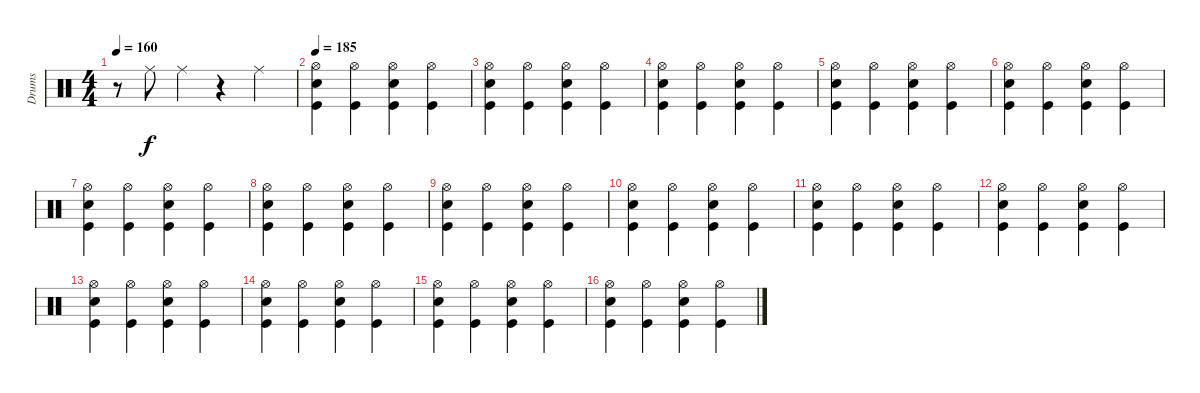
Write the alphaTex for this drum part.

\track ("Drums" "Drums") {instrument percussion}
\staff {score}
\articulation defaults
\ts (4 4)
\tempo 160
\clef neutral
\ks c
r.8{dy f} "Ride (middle)".8 "Ride (middle)".4 r.4 "Ride (middle)".4 |
\tempo 185
("Hi-Hat (open)" "Kick (hit)" "Snare (hit) 2").4 ("Hi-Hat (open)" "Kick (hit)").4 ("Hi-Hat (open)" "Kick (hit)" "Snare (hit) 2").4 ("Hi-Hat (open)" "Kick (hit)").4 |
("Hi-Hat (open)" "Kick (hit)" "Snare (hit) 2").4 ("Hi-Hat (open)" "Kick (hit)").4 ("Hi-Hat (open)" "Kick (hit)" "Snare (hit) 2").4 ("Hi-Hat (open)" "Kick (hit)").4 |
("Hi-Hat (open)" "Kick (hit)" "Snare (hit) 2").4 ("Hi-Hat (open)" "Kick (hit)").4 ("Hi-Hat (open)" "Kick (hit)" "Snare (hit) 2").4 ("Hi-Hat (open)" "Kick (hit)").4 |
("Hi-Hat (open)" "Kick (hit)" "Snare (hit) 2").4 ("Hi-Hat (open)" "Kick (hit)").4 ("Hi-Hat (open)" "Kick (hit)" "Snare (hit) 2").4 ("Hi-Hat (open)" "Kick (hit)").4 |
("Hi-Hat (open)" "Kick (hit)" "Snare (hit) 2").4 ("Hi-Hat (open)" "Kick (hit)").4 ("Hi-Hat (open)" "Kick (hit)" "Snare (hit) 2").4 ("Hi-Hat (open)" "Kick (hit)").4 |
("Hi-Hat (open)" "Kick (hit)" "Snare (hit) 2").4 ("Hi-Hat (open)" "Kick (hit)").4 ("Hi-Hat (open)" "Kick (hit)" "Snare (hit) 2").4 ("Hi-Hat (open)" "Kick (hit)").4 |
("Hi-Hat (open)" "Kick (hit)" "Snare (hit) 2").4 ("Hi-Hat (open)" "Kick (hit)").4 ("Hi-Hat (open)" "Kick (hit)" "Snare (hit) 2").4 ("Hi-Hat (open)" "Kick (hit)").4 |
("Hi-Hat (open)" "Kick (hit)" "Snare (hit) 2").4 ("Hi-Hat (open)" "Kick (hit)").4 ("Hi-Hat (open)" "Kick (hit)" "Snare (hit) 2").4 ("Hi-Hat (open)" "Kick (hit)").4 |
("Hi-Hat (open)" "Kick (hit)" "Snare (hit) 2").4 ("Hi-Hat (open)" "Kick (hit)").4 ("Hi-Hat (open)" "Kick (hit)" "Snare (hit) 2").4 ("Hi-Hat (open)" "Kick (hit)").4 |
("Hi-Hat (open)" "Kick (hit)" "Snare (hit) 2").4 ("Hi-Hat (open)" "Kick (hit)").4 ("Hi-Hat (open)" "Kick (hit)" "Snare (hit) 2").4 ("Hi-Hat (open)" "Kick (hit)").4 |
("Hi-Hat (open)" "Kick (hit)" "Snare (hit) 2").4 ("Hi-Hat (open)" "Kick (hit)").4 ("Hi-Hat (open)" "Kick (hit)" "Snare (hit) 2").4 ("Hi-Hat (open)" "Kick (hit)").4 |
("Hi-Hat (open)" "Kick (hit)" "Snare (hit) 2").4 ("Hi-Hat (open)" "Kick (hit)").4 ("Hi-Hat (open)" "Kick (hit)" "Snare (hit) 2").4 ("Hi-Hat (open)" "Kick (hit)").4 |
("Hi-Hat (open)" "Kick (hit)" "Snare (hit) 2").4 ("Hi-Hat (open)" "Kick (hit)").4 ("Hi-Hat (open)" "Kick (hit)" "Snare (hit) 2").4 ("Hi-Hat (open)" "Kick (hit)").4 |
("Hi-Hat (open)" "Kick (hit)" "Snare (hit) 2").4 ("Hi-Hat (open)" "Kick (hit)").4 ("Hi-Hat (open)" "Kick (hit)" "Snare (hit) 2").4 ("Hi-Hat (open)" "Kick (hit)").4 |
("Hi-Hat (open)" "Kick (hit)" "Snare (hit) 2").4 ("Hi-Hat (open)" "Kick (hit)").4 ("Hi-Hat (open)" "Kick (hit)" "Snare (hit) 2").4 ("Hi-Hat (open)" "Kick (hit)").4
